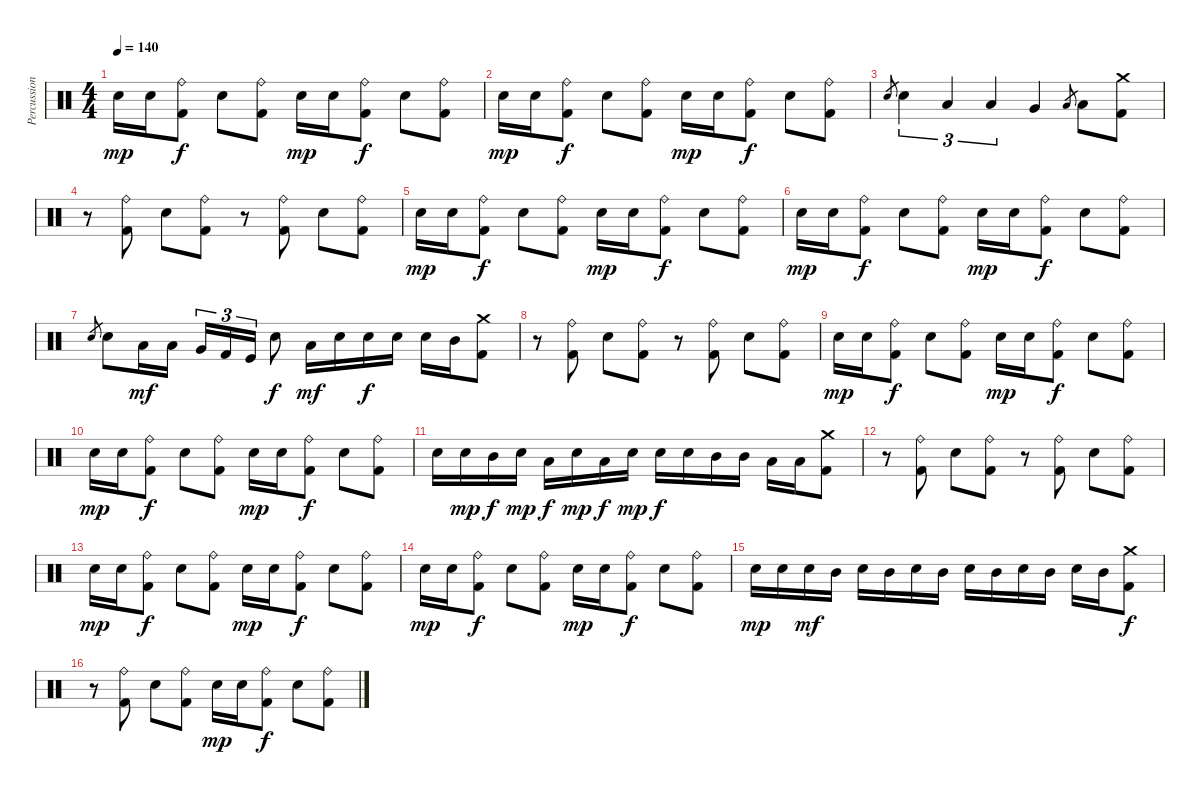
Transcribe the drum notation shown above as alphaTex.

\track ("Percussion" "Percussion") {instrument percussion}
\staff {score}
\articulation defaults
\ts (4 4)
\tempo 140
\clef neutral
\ks c "Electric Snare (hit)".16{dy mp} "Electric Snare (hit)".16
("Kick (hit) 2" "Ride (bell)").8{dy f} "Electric Snare (hit)".8 ("Kick (hit) 2" "Ride (bell)").8 "Electric Snare (hit)".16{dy mp} "Electric Snare (hit)".16 ("Kick (hit) 2" "Ride (bell)").8{dy f} "Electric Snare (hit)".8 ("Kick (hit) 2" "Ride (bell)").8 |
"Electric Snare (hit)".16{dy mp} "Electric Snare (hit)".16 ("Kick (hit) 2" "Ride (bell)").8{dy f} "Electric Snare (hit)".8 ("Kick (hit) 2" "Ride (bell)").8 "Electric Snare (hit)".16{dy mp} "Electric Snare (hit)".16 ("Kick (hit) 2" "Ride (bell)").8{dy f} "Electric Snare (hit)".8 ("Kick (hit) 2" "Ride (bell)").8 |
"Electric Snare (hit)".8{gr} "Electric Snare (hit)".4{tu (3 2)} "Low Tom (hit)".4{tu (3 2)} "Low Tom (hit)".4{tu (3 2)} "Very Low Tom (hit)".4 "Low Tom (hit)".8{gr} "Low Tom (hit)".8 ("Kick (hit) 2" "Crash medium (hit)").8 |
r.8 ("Kick (hit) 2" "Ride (bell)").8 "Electric Snare (hit)".8 ("Kick (hit) 2" "Ride (bell)").8 r.8 ("Kick (hit) 2" "Ride (bell)").8 "Electric Snare (hit)".8 ("Kick (hit) 2" "Ride (bell)").8 |
"Electric Snare (hit)".16{dy mp} "Electric Snare (hit)".16 ("Kick (hit) 2" "Ride (bell)").8{dy f} "Electric Snare (hit)".8 ("Kick (hit) 2" "Ride (bell)").8 "Electric Snare (hit)".16{dy mp} "Electric Snare (hit)".16 ("Kick (hit) 2" "Ride (bell)").8{dy f} "Electric Snare (hit)".8 ("Kick (hit) 2" "Ride (bell)").8 |
"Electric Snare (hit)".16{dy mp} "Electric Snare (hit)".16 ("Kick (hit) 2" "Ride (bell)").8{dy f} "Electric Snare (hit)".8 ("Kick (hit) 2" "Ride (bell)").8 "Electric Snare (hit)".16{dy mp} "Electric Snare (hit)".16 ("Kick (hit) 2" "Ride (bell)").8{dy f} "Electric Snare (hit)".8 ("Kick (hit) 2" "Ride (bell)").8 |
"Electric Snare (hit)".8{gr} "Electric Snare (hit)".8 "Low Tom (hit)".16{dy mf} "Low Tom (hit)".16 "Very Low Tom (hit)".16{tu (3 2)} "Kick (hit) 2".16{tu (3 2)} "Kick (hit)".16{tu (3 2)} "Electric Snare (hit)".8{dy f} "Low Tom (hit)".16{dy mf} "Electric Snare (hit)".16 "Electric Snare (hit)".16{dy f} "Electric Snare (hit)".16 "Electric Snare (hit)".16 "Mid Tom (hit)".16 ("Kick (hit) 2" "Crash medium (hit)").8 |
r.8 ("Kick (hit) 2" "Ride (bell)").8 "Electric Snare (hit)".8 ("Kick (hit) 2" "Ride (bell)").8 r.8 ("Kick (hit) 2" "Ride (bell)").8 "Electric Snare (hit)".8 ("Kick (hit) 2" "Ride (bell)").8 |
"Electric Snare (hit)".16{dy mp} "Electric Snare (hit)".16 ("Kick (hit) 2" "Ride (bell)").8{dy f} "Electric Snare (hit)".8 ("Kick (hit) 2" "Ride (bell)").8 "Electric Snare (hit)".16{dy mp} "Electric Snare (hit)".16 ("Kick (hit) 2" "Ride (bell)").8{dy f} "Electric Snare (hit)".8 ("Kick (hit) 2" "Ride (bell)").8 |
"Electric Snare (hit)".16{dy mp} "Electric Snare (hit)".16 ("Kick (hit) 2" "Ride (bell)").8{dy f} "Electric Snare (hit)".8 ("Kick (hit) 2" "Ride (bell)").8 "Electric Snare (hit)".16{dy mp} "Electric Snare (hit)".16 ("Kick (hit) 2" "Ride (bell)").8{dy f} "Electric Snare (hit)".8 ("Kick (hit) 2" "Ride (bell)").8 |
"Electric Snare (hit)".16 "Electric Snare (hit)".16{dy mp} "Mid Tom (hit)".16{dy f} "Electric Snare (hit)".16{dy mp} "Low Tom (hit)".16{dy f} "Electric Snare (hit)".16{dy mp} "Low Tom (hit)".16{dy f} "Electric Snare (hit)".16{dy mp} "Electric Snare (hit)".16{dy f} "Electric Snare (hit)".16 "Mid Tom (hit)".16 "Mid Tom (hit)".16 "Low Tom (hit)".16 "Low Tom (hit)".16 ("Kick (hit) 2" "Crash medium (hit)").8 |
r.8 ("Kick (hit) 2" "Ride (bell)").8 "Electric Snare (hit)".8 ("Kick (hit) 2" "Ride (bell)").8 r.8 ("Kick (hit) 2" "Ride (bell)").8 "Electric Snare (hit)".8 ("Kick (hit) 2" "Ride (bell)").8 |
"Electric Snare (hit)".16{dy mp} "Electric Snare (hit)".16 ("Kick (hit) 2" "Ride (bell)").8{dy f} "Electric Snare (hit)".8 ("Kick (hit) 2" "Ride (bell)").8 "Electric Snare (hit)".16{dy mp} "Electric Snare (hit)".16 ("Kick (hit) 2" "Ride (bell)").8{dy f} "Electric Snare (hit)".8 ("Kick (hit) 2" "Ride (bell)").8 |
"Electric Snare (hit)".16{dy mp} "Electric Snare (hit)".16 ("Kick (hit) 2" "Ride (bell)").8{dy f} "Electric Snare (hit)".8 ("Kick (hit) 2" "Ride (bell)").8 "Electric Snare (hit)".16{dy mp} "Electric Snare (hit)".16 ("Kick (hit) 2" "Ride (bell)").8{dy f} "Electric Snare (hit)".8 ("Kick (hit) 2" "Ride (bell)").8 |
"Electric Snare (hit)".16{dy mp} "Electric Snare (hit)".16 "Electric Snare (hit)".16{dy mf} "Mid Tom (hit)".16 "Electric Snare (hit)".16 "Mid Tom (hit)".16 "Electric Snare (hit)".16 "Mid Tom (hit)".16 "Electric Snare (hit)".16 "Mid Tom (hit)".16 "Electric Snare (hit)".16 "Mid Tom (hit)".16 "Electric Snare (hit)".16 "Mid Tom (hit)".16 ("Kick (hit) 2" "Crash medium (hit)").8{dy f} |
r.8 ("Kick (hit) 2" "Ride (bell)").8 "Electric Snare (hit)".8 ("Kick (hit) 2" "Ride (bell)").8 "Electric Snare (hit)".16{dy mp} "Electric Snare (hit)".16 ("Kick (hit) 2" "Ride (bell)").8{dy f} "Electric Snare (hit)".8 ("Kick (hit) 2" "Ride (bell)").8
